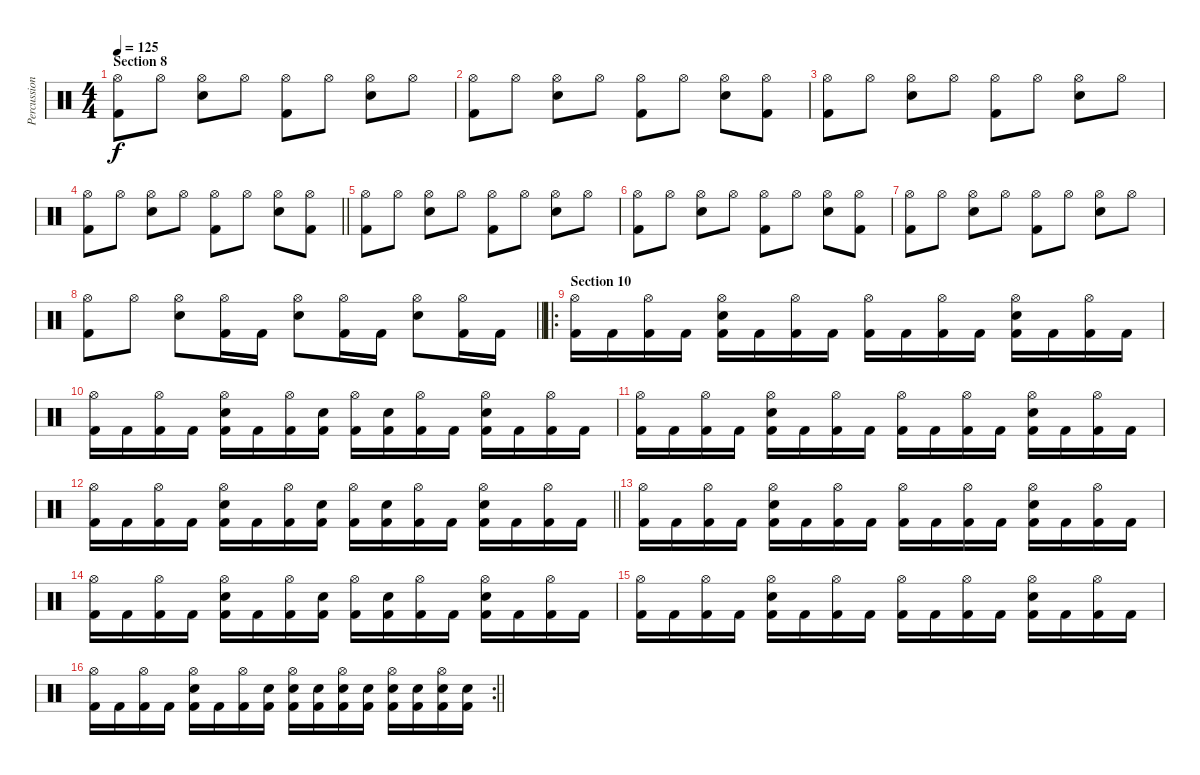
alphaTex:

\track ("Percussions" "Percussion") {instrument percussion}
\staff {score}
\articulation defaults
\ts (4 4)
\section ("" "Section 8")
\tempo 125
\clef neutral
\ks c
("Hi-Hat (open)" "Kick (hit) 2").8{dy f} "Hi-Hat (open)".8 ("Hi-Hat (open)" "Electric Snare (hit)").8 "Hi-Hat (open)".8 ("Hi-Hat (open)" "Kick (hit) 2").8 "Hi-Hat (open)".8 ("Hi-Hat (open)" "Electric Snare (hit)").8 "Hi-Hat (open)".8 |
("Hi-Hat (open)" "Kick (hit) 2").8 "Hi-Hat (open)".8 ("Hi-Hat (open)" "Electric Snare (hit)").8 "Hi-Hat (open)".8 ("Hi-Hat (open)" "Kick (hit) 2").8 "Hi-Hat (open)".8 ("Hi-Hat (open)" "Electric Snare (hit)").8 ("Hi-Hat (open)" "Kick (hit) 2").8 |
("Hi-Hat (open)" "Kick (hit) 2").8 "Hi-Hat (open)".8 ("Hi-Hat (open)" "Electric Snare (hit)").8 "Hi-Hat (open)".8 ("Hi-Hat (open)" "Kick (hit) 2").8 "Hi-Hat (open)".8 ("Hi-Hat (open)" "Electric Snare (hit)").8 "Hi-Hat (open)".8 |
\barLineRight lightlight
("Hi-Hat (open)" "Kick (hit) 2").8 "Hi-Hat (open)".8 ("Hi-Hat (open)" "Electric Snare (hit)").8 "Hi-Hat (open)".8 ("Hi-Hat (open)" "Kick (hit) 2").8 "Hi-Hat (open)".8 ("Hi-Hat (open)" "Electric Snare (hit)").8 ("Hi-Hat (open)" "Kick (hit) 2").8 |
("Hi-Hat (open)" "Kick (hit) 2").8 "Hi-Hat (open)".8 ("Hi-Hat (open)" "Electric Snare (hit)").8 "Hi-Hat (open)".8 ("Hi-Hat (open)" "Kick (hit) 2").8 "Hi-Hat (open)".8 ("Hi-Hat (open)" "Electric Snare (hit)").8 "Hi-Hat (open)".8 |
("Hi-Hat (open)" "Kick (hit) 2").8 "Hi-Hat (open)".8 ("Hi-Hat (open)" "Electric Snare (hit)").8 "Hi-Hat (open)".8 ("Hi-Hat (open)" "Kick (hit) 2").8 "Hi-Hat (open)".8 ("Hi-Hat (open)" "Electric Snare (hit)").8 ("Hi-Hat (open)" "Kick (hit) 2").8 |
("Hi-Hat (open)" "Kick (hit) 2").8 "Hi-Hat (open)".8 ("Hi-Hat (open)" "Electric Snare (hit)").8 "Hi-Hat (open)".8 ("Hi-Hat (open)" "Kick (hit) 2").8 "Hi-Hat (open)".8 ("Hi-Hat (open)" "Electric Snare (hit)").8 "Hi-Hat (open)".8 |
\barLineRight lightlight
("Hi-Hat (open)" "Kick (hit) 2").8 "Hi-Hat (open)".8 ("Hi-Hat (open)" "Electric Snare (hit)").8 ("Hi-Hat (open)" "Kick (hit) 2").16 "Kick (hit) 2".16 ("Hi-Hat (open)" "Electric Snare (hit)").8 ("Hi-Hat (open)" "Kick (hit) 2").16 "Kick (hit) 2".16 ("Hi-Hat (open)" "Electric Snare (hit)").8 ("Hi-Hat (open)" "Kick (hit) 2").16 "Kick (hit) 2".16 |
\ro
\section ("" "Section 10")
("Hi-Hat (open)" "Kick (hit) 2").16 "Kick (hit) 2".16 ("Hi-Hat (open)" "Kick (hit) 2").16 "Kick (hit) 2".16 ("Hi-Hat (open)" "Electric Snare (hit)" "Kick (hit) 2").16 "Kick (hit) 2".16 ("Hi-Hat (open)" "Kick (hit) 2").16 "Kick (hit) 2".16 ("Hi-Hat (open)" "Kick (hit) 2").16 "Kick (hit) 2".16 ("Hi-Hat (open)" "Kick (hit) 2").16 "Kick (hit) 2".16 ("Hi-Hat (open)" "Electric Snare (hit)" "Kick (hit) 2").16 "Kick (hit) 2".16 ("Hi-Hat (open)" "Kick (hit) 2").16 "Kick (hit) 2".16 |
("Hi-Hat (open)" "Kick (hit) 2").16 "Kick (hit) 2".16 ("Hi-Hat (open)" "Kick (hit) 2").16 "Kick (hit) 2".16 ("Hi-Hat (open)" "Electric Snare (hit)" "Kick (hit) 2").16 "Kick (hit) 2".16 ("Hi-Hat (open)" "Kick (hit) 2").16 ("Electric Snare (hit)" "Kick (hit) 2").16 ("Hi-Hat (open)" "Kick (hit) 2").16 ("Electric Snare (hit)" "Kick (hit) 2").16 ("Hi-Hat (open)" "Kick (hit) 2").16 "Kick (hit) 2".16 ("Hi-Hat (open)" "Electric Snare (hit)" "Kick (hit) 2").16 "Kick (hit) 2".16 ("Hi-Hat (open)" "Kick (hit) 2").16 "Kick (hit) 2".16 |
("Hi-Hat (open)" "Kick (hit) 2").16 "Kick (hit) 2".16 ("Hi-Hat (open)" "Kick (hit) 2").16 "Kick (hit) 2".16 ("Hi-Hat (open)" "Electric Snare (hit)" "Kick (hit) 2").16 "Kick (hit) 2".16 ("Hi-Hat (open)" "Kick (hit) 2").16 "Kick (hit) 2".16 ("Hi-Hat (open)" "Kick (hit) 2").16 "Kick (hit) 2".16 ("Hi-Hat (open)" "Kick (hit) 2").16 "Kick (hit) 2".16 ("Hi-Hat (open)" "Electric Snare (hit)" "Kick (hit) 2").16 "Kick (hit) 2".16 ("Hi-Hat (open)" "Kick (hit) 2").16 "Kick (hit) 2".16 |
\barLineRight lightlight
("Hi-Hat (open)" "Kick (hit) 2").16 "Kick (hit) 2".16 ("Hi-Hat (open)" "Kick (hit) 2").16 "Kick (hit) 2".16 ("Hi-Hat (open)" "Electric Snare (hit)" "Kick (hit) 2").16 "Kick (hit) 2".16 ("Hi-Hat (open)" "Kick (hit) 2").16 ("Electric Snare (hit)" "Kick (hit) 2").16 ("Hi-Hat (open)" "Kick (hit) 2").16 ("Electric Snare (hit)" "Kick (hit) 2").16 ("Hi-Hat (open)" "Kick (hit) 2").16 "Kick (hit) 2".16 ("Hi-Hat (open)" "Electric Snare (hit)" "Kick (hit) 2").16 "Kick (hit) 2".16 ("Hi-Hat (open)" "Kick (hit) 2").16 "Kick (hit) 2".16 |
("Hi-Hat (open)" "Kick (hit) 2").16 "Kick (hit) 2".16 ("Hi-Hat (open)" "Kick (hit) 2").16 "Kick (hit) 2".16 ("Hi-Hat (open)" "Electric Snare (hit)" "Kick (hit) 2").16 "Kick (hit) 2".16 ("Hi-Hat (open)" "Kick (hit) 2").16 "Kick (hit) 2".16 ("Hi-Hat (open)" "Kick (hit) 2").16 "Kick (hit) 2".16 ("Hi-Hat (open)" "Kick (hit) 2").16 "Kick (hit) 2".16 ("Hi-Hat (open)" "Electric Snare (hit)" "Kick (hit) 2").16 "Kick (hit) 2".16 ("Hi-Hat (open)" "Kick (hit) 2").16 "Kick (hit) 2".16 |
("Hi-Hat (open)" "Kick (hit) 2").16 "Kick (hit) 2".16 ("Hi-Hat (open)" "Kick (hit) 2").16 "Kick (hit) 2".16 ("Hi-Hat (open)" "Electric Snare (hit)" "Kick (hit) 2").16 "Kick (hit) 2".16 ("Hi-Hat (open)" "Kick (hit) 2").16 ("Electric Snare (hit)" "Kick (hit) 2").16 ("Hi-Hat (open)" "Kick (hit) 2").16 ("Electric Snare (hit)" "Kick (hit) 2").16 ("Hi-Hat (open)" "Kick (hit) 2").16 "Kick (hit) 2".16 ("Hi-Hat (open)" "Electric Snare (hit)" "Kick (hit) 2").16 "Kick (hit) 2".16 ("Hi-Hat (open)" "Kick (hit) 2").16 "Kick (hit) 2".16 |
("Hi-Hat (open)" "Kick (hit) 2").16 "Kick (hit) 2".16 ("Hi-Hat (open)" "Kick (hit) 2").16 "Kick (hit) 2".16 ("Hi-Hat (open)" "Electric Snare (hit)" "Kick (hit) 2").16 "Kick (hit) 2".16 ("Hi-Hat (open)" "Kick (hit) 2").16 "Kick (hit) 2".16 ("Hi-Hat (open)" "Kick (hit) 2").16 "Kick (hit) 2".16 ("Hi-Hat (open)" "Kick (hit) 2").16 "Kick (hit) 2".16 ("Hi-Hat (open)" "Electric Snare (hit)" "Kick (hit) 2").16 "Kick (hit) 2".16 ("Hi-Hat (open)" "Kick (hit) 2").16 "Kick (hit) 2".16 |
\rc 2
\barLineRight lightlight
("Hi-Hat (open)" "Kick (hit) 2").16 "Kick (hit) 2".16 ("Hi-Hat (open)" "Kick (hit) 2").16 "Kick (hit) 2".16 ("Hi-Hat (open)" "Electric Snare (hit)" "Kick (hit) 2").16 "Kick (hit) 2".16 ("Hi-Hat (open)" "Kick (hit) 2").16 ("Electric Snare (hit)" "Kick (hit) 2").16 ("Hi-Hat (open)" "Electric Snare (hit)" "Kick (hit) 2").16 ("Electric Snare (hit)" "Kick (hit) 2").16 ("Hi-Hat (open)" "Electric Snare (hit)" "Kick (hit) 2").16 ("Electric Snare (hit)" "Kick (hit) 2").16 ("Hi-Hat (open)" "Electric Snare (hit)" "Kick (hit) 2").16 ("Electric Snare (hit)" "Kick (hit) 2").16 ("Hi-Hat (open)" "Electric Snare (hit)" "Kick (hit) 2").16 ("Electric Snare (hit)" "Kick (hit) 2").16
